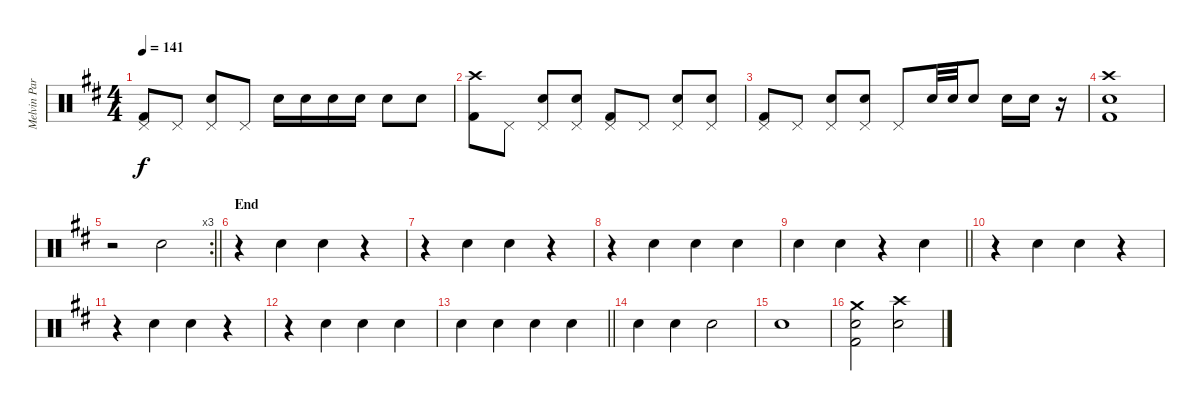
\track ("Melvin Parker - Drums " "Melvin Par") {instrument percussion}
\staff {score}
\articulation defaults
\ts (4 4)
\tempo 141
\clef neutral
\ks d
("Pedal Hi-Hat (hit)" "Kick (hit) 2").8{dy f} "Pedal Hi-Hat (hit)".8 ("Pedal Hi-Hat (hit)" "Electric Snare (hit)").8 "Pedal Hi-Hat (hit)".8 "Electric Snare (hit)".16 "Electric Snare (hit)".16 "Electric Snare (hit)".16 "Electric Snare (hit)".16 "Electric Snare (hit)".8 "Electric Snare (hit)".8 |
("Crash high (hit)" "Kick (hit) 2").8 "Pedal Hi-Hat (hit)".8 ("Pedal Hi-Hat (hit)" "Electric Snare (hit)").8 ("Pedal Hi-Hat (hit)" "Electric Snare (hit)").8 ("Pedal Hi-Hat (hit)" "Kick (hit) 2").8 "Pedal Hi-Hat (hit)".8 ("Pedal Hi-Hat (hit)" "Electric Snare (hit)").8 ("Pedal Hi-Hat (hit)" "Electric Snare (hit)").8 |
("Pedal Hi-Hat (hit)" "Kick (hit) 2").8 "Pedal Hi-Hat (hit)".8 ("Pedal Hi-Hat (hit)" "Electric Snare (hit)").8 ("Pedal Hi-Hat (hit)" "Electric Snare (hit)").8 "Pedal Hi-Hat (hit)".8 "Electric Snare (hit)".32 "Electric Snare (hit)".32 "Electric Snare (hit)".8 "Electric Snare (hit)".16 "Electric Snare (hit)".16 r.16 |
("Crash high (hit)" "Electric Snare (hit)" "Kick (hit) 2").1 |
\rc 3
\barLineRight lightlight
r.2 "Electric Snare (hit)".2 |
\section ("" "End")
r.4 "Electric Snare (hit)".4 "Electric Snare (hit)".4 r.4 |
r.4 "Electric Snare (hit)".4 "Electric Snare (hit)".4 r.4 |
r.4 "Electric Snare (hit)".4 "Electric Snare (hit)".4 "Electric Snare (hit)".4 |
\barLineRight lightlight "Electric Snare (hit)".4 "Electric Snare (hit)".4
r.4 "Electric Snare (hit)".4 |
r.4 "Electric Snare (hit)".4 "Electric Snare (hit)".4 r.4 |
r.4 "Electric Snare (hit)".4 "Electric Snare (hit)".4 r.4 |
r.4 "Electric Snare (hit)".4 "Electric Snare (hit)".4 "Electric Snare (hit)".4 |
\barLineRight lightlight "Electric Snare (hit)".4 "Electric Snare (hit)".4 "Electric Snare (hit)".4 "Electric Snare (hit)".4
|
"Electric Snare (hit)".4 "Electric Snare (hit)".4 "Electric Snare (hit)".2 |
"Electric Snare (hit)".1 |
("Crash medium (hit)" "Electric Snare (hit)" "Kick (hit) 2").2 ("Crash high (hit)" "Electric Snare (hit)").2
